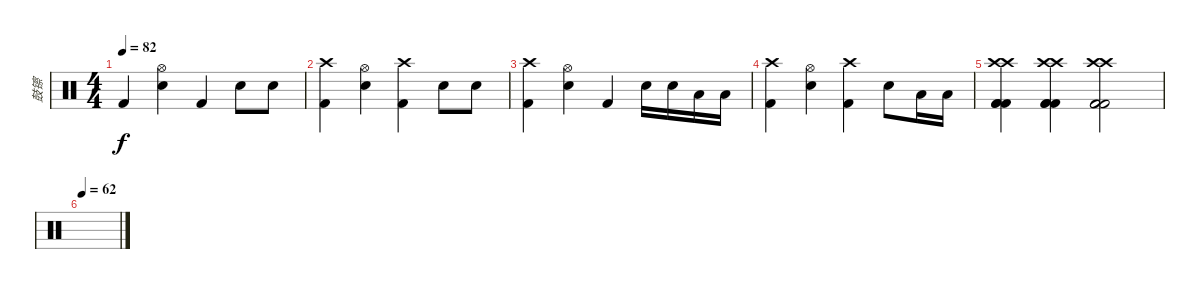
\track ("鼓镲" "鼓镲") {instrument percussion}
\staff {score}
\articulation defaults
\ts (4 4)
\tempo 82
\clef neutral
\ks c "Kick (hit) 2".4{dy f}
("Hi-Hat (open)" "Electric Snare (hit)").4 "Kick (hit) 2".4 "Electric Snare (hit)".8 "Electric Snare (hit)".8 |
("Crash high (hit)" "Kick (hit) 2").4 ("Hi-Hat (open)" "Electric Snare (hit)").4 ("Crash high (hit)" "Kick (hit) 2").4 "Electric Snare (hit)".8 "Electric Snare (hit)".8 |
("Crash high (hit)" "Kick (hit) 2").4 ("Hi-Hat (open)" "Electric Snare (hit)").4 "Kick (hit) 2".4 "Electric Snare (hit)".16 "Electric Snare (hit)".16 "Low Tom (hit)".16 "Low Tom (hit)".16 |
("Crash high (hit)" "Kick (hit) 2").4 ("Hi-Hat (open)" "Electric Snare (hit)").4 ("Crash high (hit)" "Kick (hit) 2").4 "Electric Snare (hit)".8 "Low Tom (hit)".16 "Low Tom (hit)".16 |
("Kick (hit) 2" "Crash high (hit)" "Crash high (hit)" "Kick (hit) 2" "Kick (hit) 2").4 ("Kick (hit) 2" "Crash high (hit)" "Crash high (hit)" "Kick (hit) 2" "Kick (hit) 2").4 ("Kick (hit) 2" "Crash high (hit)" "Crash high (hit)" "Kick (hit) 2" "Kick (hit) 2").2 |
\tempo 62
